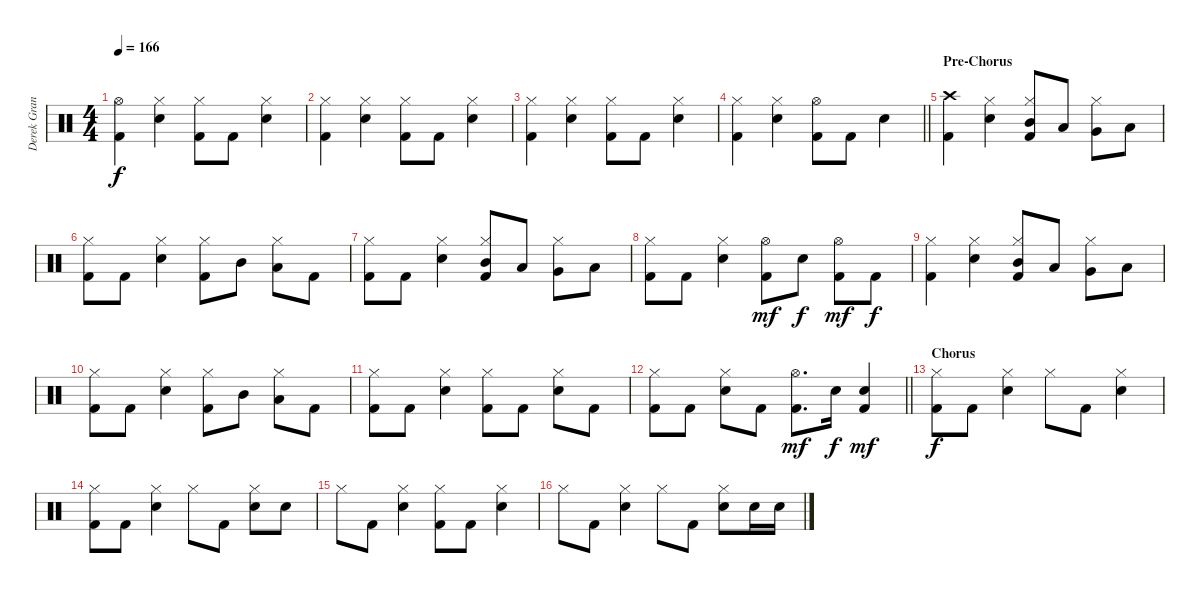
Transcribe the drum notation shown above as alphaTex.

\track ("Derek Grant - Drums" "Derek Gran") {instrument percussion}
\staff {score}
\articulation defaults
\ts (4 4)
\tempo 166
\clef neutral
\ks c
("Hi-Hat (open)" "Kick (hit) 2").4{dy f} ("Snare (hit) 2" "Hi-Hat (closed)").4 ("Kick (hit) 2" "Hi-Hat (closed)").8 "Kick (hit) 2".8 ("Snare (hit) 2" "Hi-Hat (closed)").4 |
("Hi-Hat (closed)" "Kick (hit) 2").4 ("Snare (hit) 2" "Hi-Hat (closed)").4 ("Kick (hit) 2" "Hi-Hat (closed)").8 "Kick (hit) 2".8 ("Snare (hit) 2" "Hi-Hat (closed)").4 |
("Hi-Hat (closed)" "Kick (hit) 2").4 ("Snare (hit) 2" "Hi-Hat (closed)").4 ("Kick (hit) 2" "Hi-Hat (closed)").8 "Kick (hit) 2".8 ("Snare (hit) 2" "Hi-Hat (closed)").4 |
\barLineRight lightlight
("Hi-Hat (closed)" "Kick (hit) 2").4 ("Snare (hit) 2" "Hi-Hat (closed)").4 ("Kick (hit) 2" "Hi-Hat (open)").8 "Kick (hit) 2".8 "Snare (hit) 2".4 |
\section ("" "Pre-Chorus")
("Crash high (hit)" "Kick (hit) 2").4 ("Snare (hit) 2" "Hi-Hat (closed)").4 ("Hi-Hat (closed)" "Kick (hit) 2" "Mid Tom (hit)").8 "Low Tom (hit)".8 ("Very Low Tom (hit)" "Hi-Hat (closed)").8 "Low Floor Tom (hit)".8 |
("Hi-Hat (closed)" "Kick (hit) 2").8 "Kick (hit) 2".8 ("Snare (hit) 2" "Hi-Hat (closed)").4 ("Hi-Hat (closed)" "Kick (hit) 2").8 "Mid Tom (hit)".8 ("Low Tom (hit)" "Hi-Hat (closed)").8 "Kick (hit) 2".8 |
("Hi-Hat (closed)" "Kick (hit) 2").8 "Kick (hit) 2".8 ("Snare (hit) 2" "Hi-Hat (closed)").4 ("Hi-Hat (closed)" "Kick (hit) 2" "Mid Tom (hit)").8 "Low Tom (hit)".8 ("Very Low Tom (hit)" "Hi-Hat (closed)").8 "Low Floor Tom (hit)".8 |
("Hi-Hat (closed)" "Kick (hit) 2").8 "Kick (hit) 2".8 ("Snare (hit) 2" "Hi-Hat (closed)").4 ("Hi-Hat (open)" "Kick (hit) 2").8{dy mf} "Snare (hit) 2".8{dy f} ("Hi-Hat (open)" "Kick (hit) 2").8{dy mf} "Kick (hit) 2".8{dy f} |
("Hi-Hat (closed)" "Kick (hit) 2").4 ("Snare (hit) 2" "Hi-Hat (closed)").4 ("Hi-Hat (closed)" "Kick (hit) 2" "Mid Tom (hit)").8 "Low Tom (hit)".8 ("Very Low Tom (hit)" "Hi-Hat (closed)").8 "Low Floor Tom (hit)".8 |
("Hi-Hat (closed)" "Kick (hit) 2").8 "Kick (hit) 2".8 ("Snare (hit) 2" "Hi-Hat (closed)").4 ("Hi-Hat (closed)" "Kick (hit) 2").8 "Mid Tom (hit)".8 ("Low Tom (hit)" "Hi-Hat (closed)").8 "Kick (hit) 2".8 |
("Hi-Hat (closed)" "Kick (hit) 2").8 "Kick (hit) 2".8 ("Snare (hit) 2" "Hi-Hat (closed)").4 ("Hi-Hat (closed)" "Kick (hit) 2").8 "Kick (hit) 2".8 ("Snare (hit) 2" "Hi-Hat (closed)").8 "Kick (hit) 2".8 |
\barLineRight lightlight
("Hi-Hat (closed)" "Kick (hit) 2").8 "Kick (hit) 2".8 ("Snare (hit) 2" "Hi-Hat (closed)").8 "Kick (hit) 2".8 ("Hi-Hat (open)" "Kick (hit) 2").8{d dy mf} "Snare (hit) 2".16{dy f} ("Snare (hit) 2" "Kick (hit) 2").4{dy mf} |
\section ("" "Chorus")
("Hi-Hat (closed)" "Kick (hit) 2").8{dy f} "Kick (hit) 2".8 ("Snare (hit) 2" "Hi-Hat (closed)").4 "Hi-Hat (closed)".8 "Kick (hit) 2".8 ("Snare (hit) 2" "Hi-Hat (closed)").4 |
("Hi-Hat (closed)" "Kick (hit) 2").8 "Kick (hit) 2".8 ("Snare (hit) 2" "Hi-Hat (closed)").4 "Hi-Hat (closed)".8 "Kick (hit) 2".8 ("Snare (hit) 2" "Hi-Hat (closed)").8 "Snare (hit) 2".8 |
"Hi-Hat (closed)".8 "Kick (hit) 2".8 ("Snare (hit) 2" "Hi-Hat (closed)").4 ("Hi-Hat (closed)" "Kick (hit) 2").8 "Kick (hit) 2".8 ("Snare (hit) 2" "Hi-Hat (closed)").4 |
"Hi-Hat (closed)".8 "Kick (hit) 2".8 ("Snare (hit) 2" "Hi-Hat (closed)").4 "Hi-Hat (closed)".8 "Kick (hit) 2".8 ("Snare (hit) 2" "Hi-Hat (closed)").8 "Snare (hit) 2".16 "Snare (hit) 2".16
